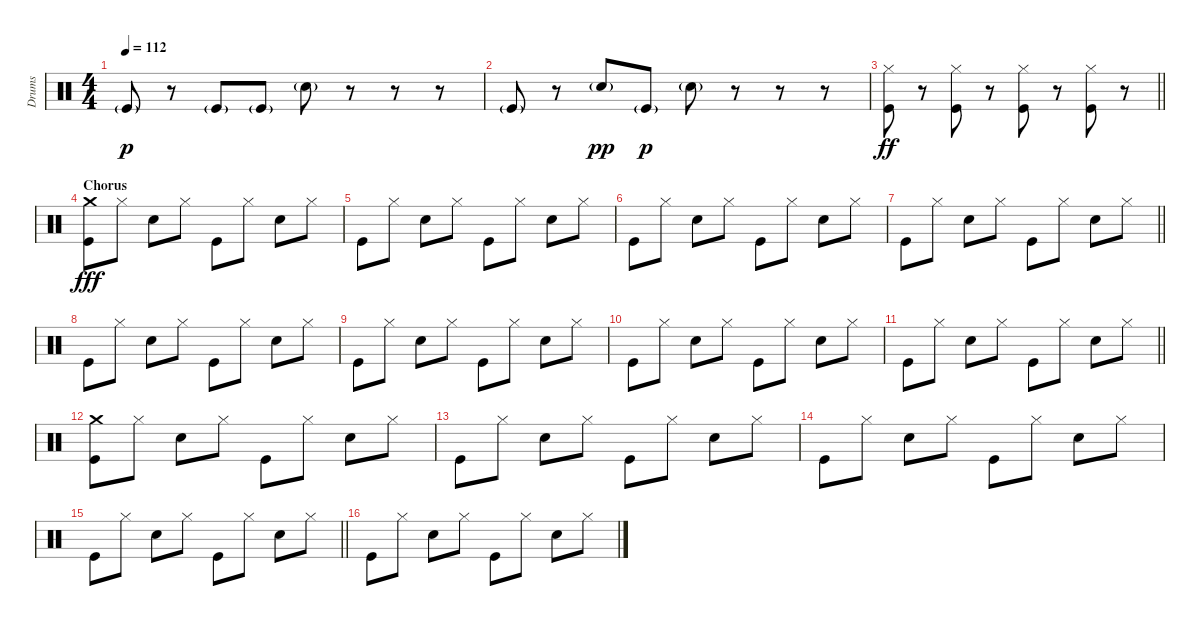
\track ("Drums" "Drums") {instrument percussion}
\staff {score}
\articulation defaults
\ts (4 4)
\tempo 112
\clef neutral
\ks c "Kick (hit)"{g}.8{dy p}
r.8 "Kick (hit)"{g}.8 "Kick (hit)"{g}.8 "Snare (hit) 2"{g}.8 r.8 r.8 r.8 |
"Kick (hit)"{g}.8 r.8 "Snare (hit) 2"{g}.8{dy pp} "Kick (hit)"{g}.8{dy p} "Snare (hit) 2"{g}.8 r.8 r.8 r.8 |
\barLineRight lightlight
("Hi-Hat (closed)" "Kick (hit)").8{dy ff} r.8 ("Hi-Hat (closed)" "Kick (hit)").8 r.8 ("Hi-Hat (closed)" "Kick (hit)").8 r.8 ("Hi-Hat (closed)" "Kick (hit)").8 r.8 |
\section ("" "Chorus")
("Crash medium (hit)" "Kick (hit)").8{dy fff} "Hi-Hat (closed)".8 "Snare (hit) 2".8 "Hi-Hat (closed)".8 "Kick (hit)".8 "Hi-Hat (closed)".8 "Snare (hit) 2".8 "Hi-Hat (closed)".8 |
"Kick (hit)".8 "Hi-Hat (closed)".8 "Snare (hit) 2".8 "Hi-Hat (closed)".8 "Kick (hit)".8 "Hi-Hat (closed)".8 "Snare (hit) 2".8 "Hi-Hat (closed)".8 |
"Kick (hit)".8 "Hi-Hat (closed)".8 "Snare (hit) 2".8 "Hi-Hat (closed)".8 "Kick (hit)".8 "Hi-Hat (closed)".8 "Snare (hit) 2".8 "Hi-Hat (closed)".8 |
\barLineRight lightlight "Kick (hit)".8 "Hi-Hat (closed)".8 "Snare (hit) 2".8 "Hi-Hat (closed)".8 "Kick (hit)".8 "Hi-Hat (closed)".8 "Snare (hit) 2".8 "Hi-Hat (closed)".8
|
"Kick (hit)".8 "Hi-Hat (closed)".8 "Snare (hit) 2".8 "Hi-Hat (closed)".8 "Kick (hit)".8 "Hi-Hat (closed)".8 "Snare (hit) 2".8 "Hi-Hat (closed)".8 |
"Kick (hit)".8 "Hi-Hat (closed)".8 "Snare (hit) 2".8 "Hi-Hat (closed)".8 "Kick (hit)".8 "Hi-Hat (closed)".8 "Snare (hit) 2".8 "Hi-Hat (closed)".8 |
"Kick (hit)".8 "Hi-Hat (closed)".8 "Snare (hit) 2".8 "Hi-Hat (closed)".8 "Kick (hit)".8 "Hi-Hat (closed)".8 "Snare (hit) 2".8 "Hi-Hat (closed)".8 |
\barLineRight lightlight "Kick (hit)".8 "Hi-Hat (closed)".8 "Snare (hit) 2".8 "Hi-Hat (closed)".8 "Kick (hit)".8 "Hi-Hat (closed)".8 "Snare (hit) 2".8 "Hi-Hat (closed)".8
|
("Crash medium (hit)" "Kick (hit)").8 "Hi-Hat (closed)".8 "Snare (hit) 2".8 "Hi-Hat (closed)".8 "Kick (hit)".8 "Hi-Hat (closed)".8 "Snare (hit) 2".8 "Hi-Hat (closed)".8 |
"Kick (hit)".8 "Hi-Hat (closed)".8 "Snare (hit) 2".8 "Hi-Hat (closed)".8 "Kick (hit)".8 "Hi-Hat (closed)".8 "Snare (hit) 2".8 "Hi-Hat (closed)".8 |
"Kick (hit)".8 "Hi-Hat (closed)".8 "Snare (hit) 2".8 "Hi-Hat (closed)".8 "Kick (hit)".8 "Hi-Hat (closed)".8 "Snare (hit) 2".8 "Hi-Hat (closed)".8 |
\barLineRight lightlight "Kick (hit)".8 "Hi-Hat (closed)".8 "Snare (hit) 2".8 "Hi-Hat (closed)".8 "Kick (hit)".8 "Hi-Hat (closed)".8 "Snare (hit) 2".8 "Hi-Hat (closed)".8
|
"Kick (hit)".8 "Hi-Hat (closed)".8 "Snare (hit) 2".8 "Hi-Hat (closed)".8 "Kick (hit)".8 "Hi-Hat (closed)".8 "Snare (hit) 2".8 "Hi-Hat (closed)".8
